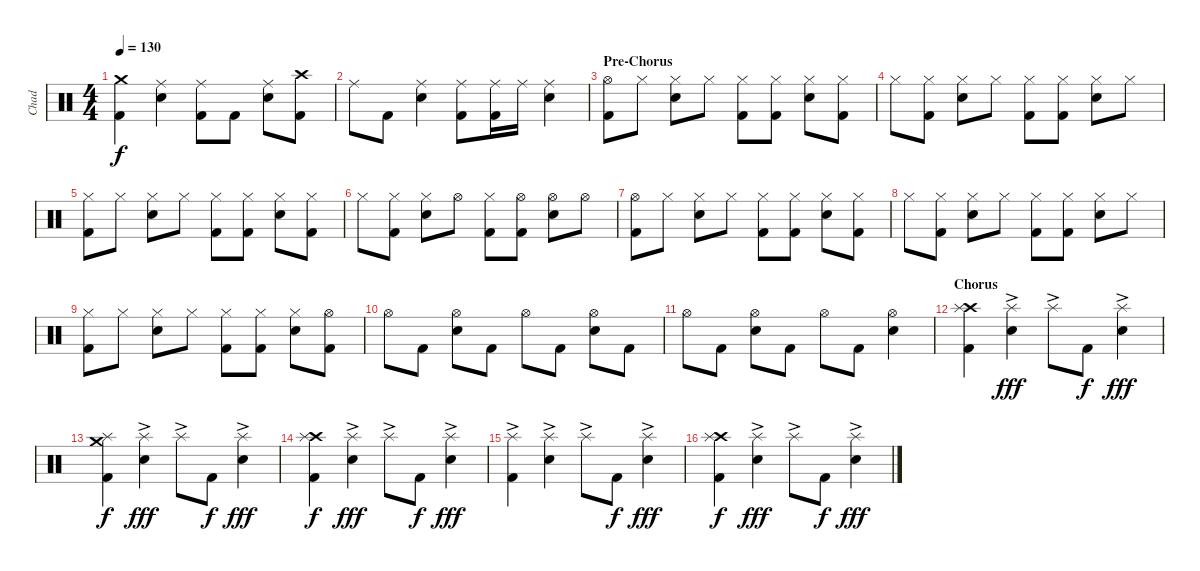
\track ("Chad" "Chad") {instrument percussion}
\staff {score}
\articulation defaults
\ts (4 4)
\tempo 130
\clef neutral
\ks c
("Crash medium (hit)" "Kick (hit) 2").4{dy f} ("Ride (middle)" "Snare (hit) 2").4 ("Ride (middle)" "Kick (hit) 2").8 "Kick (hit) 2".8 ("Ride (middle)" "Snare (hit) 2").8 ("Crash high (hit)" "Kick (hit) 2").8 |
"Ride (middle)".8 "Kick (hit) 2".8 ("Ride (middle)" "Snare (hit) 2").4 ("Ride (middle)" "Kick (hit) 2").8 ("Ride (middle)" "Kick (hit) 2").16 "Ride (middle)".16 ("Ride (middle)" "Snare (hit) 2").4 |
\section ("" "Pre-Chorus")
("Hi-Hat (open)" "Kick (hit) 2").8 "Hi-Hat (closed)".8 ("Hi-Hat (closed)" "Snare (hit) 2").8 "Hi-Hat (closed)".8 ("Hi-Hat (closed)" "Kick (hit) 2").8 ("Hi-Hat (closed)" "Kick (hit) 2").8 ("Hi-Hat (closed)" "Snare (hit) 2").8 ("Hi-Hat (closed)" "Kick (hit) 2").8 |
"Hi-Hat (closed)".8 ("Hi-Hat (closed)" "Kick (hit) 2").8 ("Hi-Hat (closed)" "Snare (hit) 2").8 "Hi-Hat (closed)".8 ("Hi-Hat (closed)" "Kick (hit) 2").8 ("Hi-Hat (closed)" "Kick (hit) 2").8 ("Hi-Hat (closed)" "Snare (hit) 2").8 "Hi-Hat (closed)".8 |
("Hi-Hat (closed)" "Kick (hit) 2").8 "Hi-Hat (closed)".8 ("Hi-Hat (closed)" "Snare (hit) 2").8 "Hi-Hat (closed)".8 ("Hi-Hat (closed)" "Kick (hit) 2").8 ("Hi-Hat (closed)" "Kick (hit) 2").8 ("Hi-Hat (closed)" "Snare (hit) 2").8 ("Hi-Hat (closed)" "Kick (hit) 2").8 |
"Hi-Hat (closed)".8 ("Hi-Hat (closed)" "Kick (hit) 2").8 ("Hi-Hat (closed)" "Snare (hit) 2").8 "Hi-Hat (open)".8 ("Hi-Hat (closed)" "Kick (hit) 2").8 ("Hi-Hat (open)" "Kick (hit) 2").8 ("Hi-Hat (open)" "Snare (hit) 2").8 "Hi-Hat (open)".8 |
("Hi-Hat (open)" "Kick (hit) 2").8 "Hi-Hat (closed)".8 ("Hi-Hat (closed)" "Snare (hit) 2").8 "Hi-Hat (closed)".8 ("Hi-Hat (closed)" "Kick (hit) 2").8 ("Hi-Hat (closed)" "Kick (hit) 2").8 ("Hi-Hat (closed)" "Snare (hit) 2").8 ("Hi-Hat (closed)" "Kick (hit) 2").8 |
"Hi-Hat (closed)".8 ("Hi-Hat (closed)" "Kick (hit) 2").8 ("Hi-Hat (closed)" "Snare (hit) 2").8 "Hi-Hat (closed)".8 ("Hi-Hat (closed)" "Kick (hit) 2").8 ("Hi-Hat (closed)" "Kick (hit) 2").8 ("Hi-Hat (closed)" "Snare (hit) 2").8 "Hi-Hat (closed)".8 |
("Hi-Hat (closed)" "Kick (hit) 2").8 "Hi-Hat (closed)".8 ("Hi-Hat (closed)" "Snare (hit) 2").8 "Hi-Hat (closed)".8 ("Hi-Hat (closed)" "Kick (hit) 2").8 ("Hi-Hat (closed)" "Kick (hit) 2").8 ("Hi-Hat (closed)" "Snare (hit) 2").8 ("Hi-Hat (open)" "Kick (hit) 2").8 |
"Hi-Hat (open)".8 "Kick (hit) 2".8 ("Hi-Hat (open)" "Snare (hit) 2").8 "Kick (hit) 2".8 "Hi-Hat (open)".8 "Kick (hit) 2".8 ("Hi-Hat (open)" "Snare (hit) 2").8 "Kick (hit) 2".8 |
"Hi-Hat (open)".8 "Kick (hit) 2".8 ("Hi-Hat (open)" "Snare (hit) 2").8 "Kick (hit) 2".8 "Hi-Hat (open)".8 "Kick (hit) 2".8 ("Hi-Hat (open)" "Snare (hit) 2").4 |
\section ("" "Chorus")
("Crash high (hit)" "Splash (hit)" "Kick (hit) 2").4 ("Splash (hit)"{ac} "Snare (hit) 2").4{dy fff} "Splash (hit)"{ac}.8 "Kick (hit) 2".8{dy f} ("Splash (hit)"{ac} "Snare (hit) 2").4{dy fff} |
("Crash medium (hit)" "Splash (hit)" "Kick (hit) 2").4{dy f} ("Splash (hit)"{ac} "Snare (hit) 2").4{dy fff} "Splash (hit)"{ac}.8 "Kick (hit) 2".8{dy f} ("Splash (hit)"{ac} "Snare (hit) 2").4{dy fff} |
("Crash high (hit)" "Splash (hit)" "Kick (hit) 2").4{dy f} ("Splash (hit)"{ac} "Snare (hit) 2").4{dy fff} "Splash (hit)"{ac}.8 "Kick (hit) 2".8{dy f} ("Splash (hit)"{ac} "Snare (hit) 2").4{dy fff} |
("Splash (hit)"{ac} "Kick (hit) 2").4 ("Splash (hit)"{ac} "Snare (hit) 2").4 "Splash (hit)"{ac}.8 "Kick (hit) 2".8{dy f} ("Splash (hit)"{ac} "Snare (hit) 2").4{dy fff} |
("Crash high (hit)" "Splash (hit)" "Kick (hit) 2").4{dy f} ("Splash (hit)"{ac} "Snare (hit) 2").4{dy fff} "Splash (hit)"{ac}.8 "Kick (hit) 2".8{dy f} ("Splash (hit)"{ac} "Snare (hit) 2").4{dy fff}
